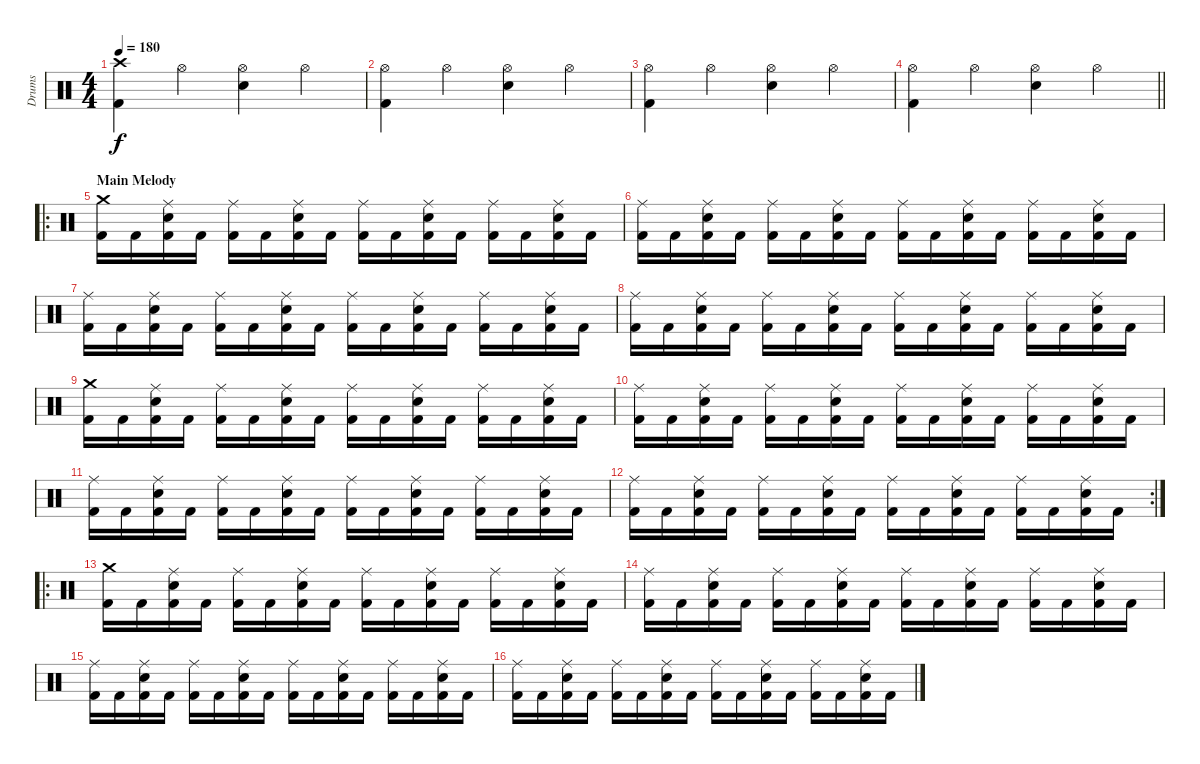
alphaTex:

\track ("Drums" "Drums") {instrument percussion}
\staff {score}
\articulation defaults
\ts (4 4)
\tempo 180
\clef neutral
\ks c
("Crash high (hit)" "Kick (hit) 2").4{dy f} "Hi-Hat (open)".4 ("Hi-Hat (open)" "Electric Snare (hit)").4 "Hi-Hat (open)".4 |
("Hi-Hat (open)" "Kick (hit) 2").4 "Hi-Hat (open)".4 ("Hi-Hat (open)" "Electric Snare (hit)").4 "Hi-Hat (open)".4 |
("Hi-Hat (open)" "Kick (hit) 2").4 "Hi-Hat (open)".4 ("Hi-Hat (open)" "Electric Snare (hit)").4 "Hi-Hat (open)".4 |
\barLineRight lightlight
("Hi-Hat (open)" "Kick (hit) 2").4 "Hi-Hat (open)".4 ("Hi-Hat (open)" "Electric Snare (hit)").4 "Hi-Hat (open)".4 |
\ro
\section ("" "Main Melody")
("Crash medium (hit)" "Kick (hit) 2").16 "Kick (hit) 2".16 ("Ride (middle)" "Electric Snare (hit)" "Kick (hit) 2").16 "Kick (hit) 2".16 ("Ride (middle)" "Kick (hit) 2").16 "Kick (hit) 2".16 ("Ride (middle)" "Electric Snare (hit)" "Kick (hit) 2").16 "Kick (hit) 2".16 ("Ride (middle)" "Kick (hit) 2").16 "Kick (hit) 2".16 ("Ride (middle)" "Electric Snare (hit)" "Kick (hit) 2").16 "Kick (hit) 2".16 ("Ride (middle)" "Kick (hit) 2").16 "Kick (hit) 2".16 ("Ride (middle)" "Electric Snare (hit)" "Kick (hit) 2").16 "Kick (hit) 2".16 |
("Ride (middle)" "Kick (hit) 2").16 "Kick (hit) 2".16 ("Ride (middle)" "Electric Snare (hit)" "Kick (hit) 2").16 "Kick (hit) 2".16 ("Ride (middle)" "Kick (hit) 2").16 "Kick (hit) 2".16 ("Ride (middle)" "Electric Snare (hit)" "Kick (hit) 2").16 "Kick (hit) 2".16 ("Ride (middle)" "Kick (hit) 2").16 "Kick (hit) 2".16 ("Ride (middle)" "Electric Snare (hit)" "Kick (hit) 2").16 "Kick (hit) 2".16 ("Ride (middle)" "Kick (hit) 2").16 "Kick (hit) 2".16 ("Ride (middle)" "Electric Snare (hit)" "Kick (hit) 2").16 "Kick (hit) 2".16 |
("Ride (middle)" "Kick (hit) 2").16 "Kick (hit) 2".16 ("Ride (middle)" "Electric Snare (hit)" "Kick (hit) 2").16 "Kick (hit) 2".16 ("Ride (middle)" "Kick (hit) 2").16 "Kick (hit) 2".16 ("Ride (middle)" "Electric Snare (hit)" "Kick (hit) 2").16 "Kick (hit) 2".16 ("Ride (middle)" "Kick (hit) 2").16 "Kick (hit) 2".16 ("Ride (middle)" "Electric Snare (hit)" "Kick (hit) 2").16 "Kick (hit) 2".16 ("Ride (middle)" "Kick (hit) 2").16 "Kick (hit) 2".16 ("Ride (middle)" "Electric Snare (hit)" "Kick (hit) 2").16 "Kick (hit) 2".16 |
("Ride (middle)" "Kick (hit) 2").16 "Kick (hit) 2".16 ("Ride (middle)" "Electric Snare (hit)" "Kick (hit) 2").16 "Kick (hit) 2".16 ("Ride (middle)" "Kick (hit) 2").16 "Kick (hit) 2".16 ("Ride (middle)" "Electric Snare (hit)" "Kick (hit) 2").16 "Kick (hit) 2".16 ("Ride (middle)" "Kick (hit) 2").16 "Kick (hit) 2".16 ("Ride (middle)" "Electric Snare (hit)" "Kick (hit) 2").16 "Kick (hit) 2".16 ("Ride (middle)" "Kick (hit) 2").16 "Kick (hit) 2".16 ("Ride (middle)" "Electric Snare (hit)" "Kick (hit) 2").16 "Kick (hit) 2".16 |
("Crash medium (hit)" "Kick (hit) 2").16 "Kick (hit) 2".16 ("Ride (middle)" "Electric Snare (hit)" "Kick (hit) 2").16 "Kick (hit) 2".16 ("Ride (middle)" "Kick (hit) 2").16 "Kick (hit) 2".16 ("Ride (middle)" "Electric Snare (hit)" "Kick (hit) 2").16 "Kick (hit) 2".16 ("Ride (middle)" "Kick (hit) 2").16 "Kick (hit) 2".16 ("Ride (middle)" "Electric Snare (hit)" "Kick (hit) 2").16 "Kick (hit) 2".16 ("Ride (middle)" "Kick (hit) 2").16 "Kick (hit) 2".16 ("Ride (middle)" "Electric Snare (hit)" "Kick (hit) 2").16 "Kick (hit) 2".16 |
("Ride (middle)" "Kick (hit) 2").16 "Kick (hit) 2".16 ("Ride (middle)" "Electric Snare (hit)" "Kick (hit) 2").16 "Kick (hit) 2".16 ("Ride (middle)" "Kick (hit) 2").16 "Kick (hit) 2".16 ("Ride (middle)" "Electric Snare (hit)" "Kick (hit) 2").16 "Kick (hit) 2".16 ("Ride (middle)" "Kick (hit) 2").16 "Kick (hit) 2".16 ("Ride (middle)" "Electric Snare (hit)" "Kick (hit) 2").16 "Kick (hit) 2".16 ("Ride (middle)" "Kick (hit) 2").16 "Kick (hit) 2".16 ("Ride (middle)" "Electric Snare (hit)" "Kick (hit) 2").16 "Kick (hit) 2".16 |
("Ride (middle)" "Kick (hit) 2").16 "Kick (hit) 2".16 ("Ride (middle)" "Electric Snare (hit)" "Kick (hit) 2").16 "Kick (hit) 2".16 ("Ride (middle)" "Kick (hit) 2").16 "Kick (hit) 2".16 ("Ride (middle)" "Electric Snare (hit)" "Kick (hit) 2").16 "Kick (hit) 2".16 ("Ride (middle)" "Kick (hit) 2").16 "Kick (hit) 2".16 ("Ride (middle)" "Electric Snare (hit)" "Kick (hit) 2").16 "Kick (hit) 2".16 ("Ride (middle)" "Kick (hit) 2").16 "Kick (hit) 2".16 ("Ride (middle)" "Electric Snare (hit)" "Kick (hit) 2").16 "Kick (hit) 2".16 |
\rc 2
("Ride (middle)" "Kick (hit) 2").16 "Kick (hit) 2".16 ("Ride (middle)" "Electric Snare (hit)" "Kick (hit) 2").16 "Kick (hit) 2".16 ("Ride (middle)" "Kick (hit) 2").16 "Kick (hit) 2".16 ("Ride (middle)" "Electric Snare (hit)" "Kick (hit) 2").16 "Kick (hit) 2".16 ("Ride (middle)" "Kick (hit) 2").16 "Kick (hit) 2".16 ("Ride (middle)" "Electric Snare (hit)" "Kick (hit) 2").16 "Kick (hit) 2".16 ("Ride (middle)" "Kick (hit) 2").16 "Kick (hit) 2".16 ("Ride (middle)" "Electric Snare (hit)" "Kick (hit) 2").16 "Kick (hit) 2".16 |
\ro
("Crash medium (hit)" "Kick (hit) 2").16 "Kick (hit) 2".16 ("Ride (middle)" "Electric Snare (hit)" "Kick (hit) 2").16 "Kick (hit) 2".16 ("Ride (middle)" "Kick (hit) 2").16 "Kick (hit) 2".16 ("Ride (middle)" "Electric Snare (hit)" "Kick (hit) 2").16 "Kick (hit) 2".16 ("Ride (middle)" "Kick (hit) 2").16 "Kick (hit) 2".16 ("Ride (middle)" "Electric Snare (hit)" "Kick (hit) 2").16 "Kick (hit) 2".16 ("Ride (middle)" "Kick (hit) 2").16 "Kick (hit) 2".16 ("Ride (middle)" "Electric Snare (hit)" "Kick (hit) 2").16 "Kick (hit) 2".16 |
("Ride (middle)" "Kick (hit) 2").16 "Kick (hit) 2".16 ("Ride (middle)" "Electric Snare (hit)" "Kick (hit) 2").16 "Kick (hit) 2".16 ("Ride (middle)" "Kick (hit) 2").16 "Kick (hit) 2".16 ("Ride (middle)" "Electric Snare (hit)" "Kick (hit) 2").16 "Kick (hit) 2".16 ("Ride (middle)" "Kick (hit) 2").16 "Kick (hit) 2".16 ("Ride (middle)" "Electric Snare (hit)" "Kick (hit) 2").16 "Kick (hit) 2".16 ("Ride (middle)" "Kick (hit) 2").16 "Kick (hit) 2".16 ("Ride (middle)" "Electric Snare (hit)" "Kick (hit) 2").16 "Kick (hit) 2".16 |
("Ride (middle)" "Kick (hit) 2").16 "Kick (hit) 2".16 ("Ride (middle)" "Electric Snare (hit)" "Kick (hit) 2").16 "Kick (hit) 2".16 ("Ride (middle)" "Kick (hit) 2").16 "Kick (hit) 2".16 ("Ride (middle)" "Electric Snare (hit)" "Kick (hit) 2").16 "Kick (hit) 2".16 ("Ride (middle)" "Kick (hit) 2").16 "Kick (hit) 2".16 ("Ride (middle)" "Electric Snare (hit)" "Kick (hit) 2").16 "Kick (hit) 2".16 ("Ride (middle)" "Kick (hit) 2").16 "Kick (hit) 2".16 ("Ride (middle)" "Electric Snare (hit)" "Kick (hit) 2").16 "Kick (hit) 2".16 |
("Ride (middle)" "Kick (hit) 2").16 "Kick (hit) 2".16 ("Ride (middle)" "Electric Snare (hit)" "Kick (hit) 2").16 "Kick (hit) 2".16 ("Ride (middle)" "Kick (hit) 2").16 "Kick (hit) 2".16 ("Ride (middle)" "Electric Snare (hit)" "Kick (hit) 2").16 "Kick (hit) 2".16 ("Ride (middle)" "Kick (hit) 2").16 "Kick (hit) 2".16 ("Ride (middle)" "Electric Snare (hit)" "Kick (hit) 2").16 "Kick (hit) 2".16 ("Ride (middle)" "Kick (hit) 2").16 "Kick (hit) 2".16 ("Ride (middle)" "Electric Snare (hit)" "Kick (hit) 2").16 "Kick (hit) 2".16
